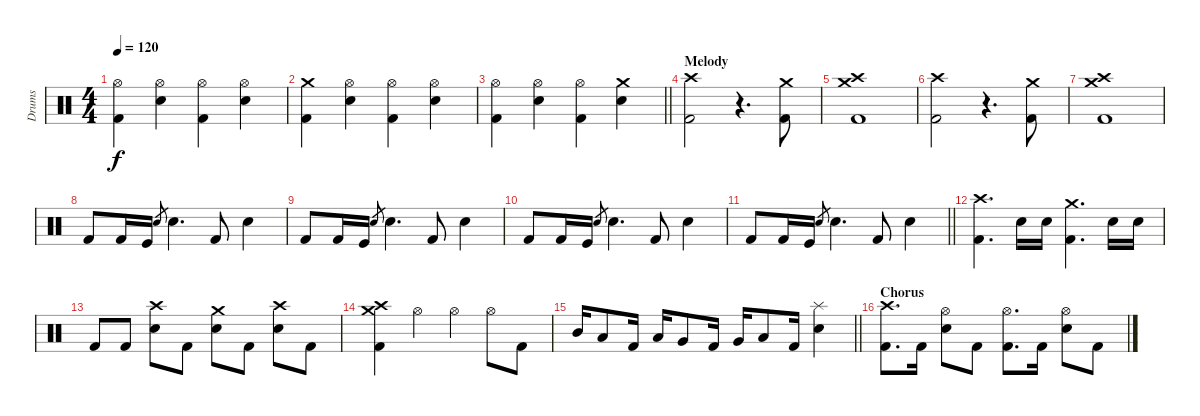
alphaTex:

\track ("Drums" "Drums") {instrument percussion}
\staff {score}
\articulation defaults
\ts (4 4)
\tempo 120
\clef neutral
\ks c
("Hi-Hat (open)" "Kick (hit) 2").4{dy f} ("Hi-Hat (open)" "Snare (hit) 2").4 ("Hi-Hat (open)" "Kick (hit) 2").4 ("Hi-Hat (open)" "Snare (hit) 2").4 |
("Crash medium (hit)" "Kick (hit) 2").4 ("Hi-Hat (open)" "Snare (hit) 2").4 ("Hi-Hat (open)" "Kick (hit) 2").4 ("Hi-Hat (open)" "Snare (hit) 2").4 |
\barLineRight lightlight
("Hi-Hat (open)" "Kick (hit) 2").4 ("Hi-Hat (open)" "Snare (hit) 2").4 ("Hi-Hat (open)" "Kick (hit) 2").4 ("Crash medium (hit)" "Snare (hit) 2").4 |
\section ("" "Melody")
("Crash high (hit)" "Kick (hit) 2").2 r.4{d} ("Crash medium (hit)" "Kick (hit) 2").8 |
("Crash high (hit)" "Crash medium (hit)" "Kick (hit) 2").1 |
("Crash high (hit)" "Kick (hit) 2").2 r.4{d} ("Crash medium (hit)" "Kick (hit) 2").8 |
("Crash high (hit)" "Crash medium (hit)" "Kick (hit) 2").1 |
"Kick (hit) 2".8 "Kick (hit) 2".16 "Kick (hit)".16 "Snare (hit) 2".8{gr} "Snare (hit) 2".4{d} "Kick (hit) 2".8 "Snare (hit) 2".4 |
"Kick (hit) 2".8 "Kick (hit) 2".16 "Kick (hit)".16 "Snare (hit) 2".8{gr} "Snare (hit) 2".4{d} "Kick (hit) 2".8 "Snare (hit) 2".4 |
"Kick (hit) 2".8 "Kick (hit) 2".16 "Kick (hit)".16 "Snare (hit) 2".8{gr} "Snare (hit) 2".4{d} "Kick (hit) 2".8 "Snare (hit) 2".4 |
\barLineRight lightlight "Kick (hit) 2".8 "Kick (hit) 2".16 "Kick (hit)".16 "Snare (hit) 2".8{gr} "Snare (hit) 2".4{d} "Kick (hit) 2".8 "Snare (hit) 2".4
|
("Crash high (hit)" "Kick (hit) 2").4{d} "Snare (hit) 2".16 "Snare (hit) 2".16 ("Crash medium (hit)" "Kick (hit) 2").4{d} "Snare (hit) 2".16 "Snare (hit) 2".16 |
"Kick (hit) 2".8 "Kick (hit) 2".8 ("Crash high (hit)" "Snare (hit) 2").8 "Kick (hit) 2".8 ("Crash medium (hit)" "Snare (hit) 2").8 "Kick (hit) 2".8 ("Crash high (hit)" "Snare (hit) 2").8 "Kick (hit) 2".8 |
("Crash high (hit)" "Crash medium (hit)" "Kick (hit) 2").4 "Hi-Hat (open)".4 "Hi-Hat (open)".4 "Hi-Hat (open)".8 "Kick (hit) 2".8 |
\barLineRight lightlight "Mid Tom (hit)".16 "Low Tom (hit)".8 "Kick (hit) 2".16 "Low Tom (hit)".16 "Very Low Tom (hit)".8 "Kick (hit) 2".16 "Very Low Tom (hit)".16 "Low Floor Tom (hit)".8 "Kick (hit) 2".16
("Splash (hit)" "Snare (hit) 2").4 |
\section ("" "Chorus")
("Crash high (hit)" "Kick (hit) 2").8{d} "Kick (hit) 2".16 ("Hi-Hat (open)" "Snare (hit) 2").8 "Kick (hit) 2".8 ("Hi-Hat (open)" "Kick (hit) 2").8{d} "Kick (hit) 2".16 ("Hi-Hat (open)" "Snare (hit) 2").8 "Kick (hit) 2".8
